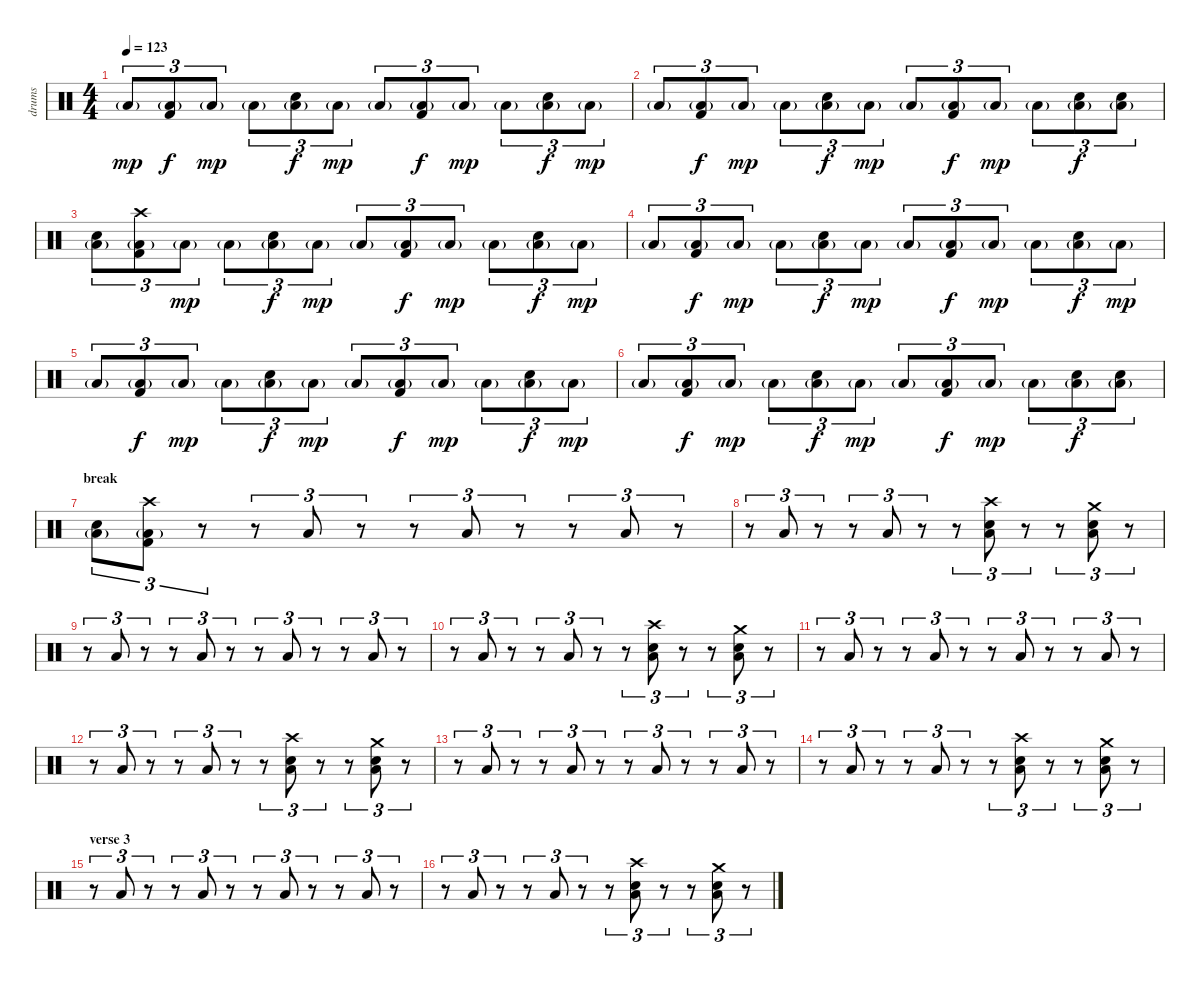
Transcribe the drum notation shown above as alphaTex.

\track ("drums" "drums") {instrument percussion}
\staff {score}
\articulation defaults
\ts (4 4)
\tempo 123
\clef neutral
\ks c "Low Floor Tom (hit)"{g}.8{tu (3 2) txt "" dy mp}
("Low Floor Tom (hit)"{g} "Kick (hit) 2").8{tu (3 2) txt "" dy f} "Low Floor Tom (hit)"{g}.8{tu (3 2) txt "" dy mp} "Low Floor Tom (hit)"{g}.8{tu (3 2) txt ""} ("Low Floor Tom (hit)"{g} "Electric Snare (hit)").8{tu (3 2) txt "" dy f} "Low Floor Tom (hit)"{g}.8{tu (3 2) txt "" dy mp} "Low Floor Tom (hit)"{g}.8{tu (3 2) txt ""} ("Low Floor Tom (hit)"{g} "Kick (hit) 2").8{tu (3 2) txt "" dy f} "Low Floor Tom (hit)"{g}.8{tu (3 2) txt "" dy mp} "Low Floor Tom (hit)"{g}.8{tu (3 2) txt ""} ("Low Floor Tom (hit)"{g} "Electric Snare (hit)").8{tu (3 2) txt "" dy f} "Low Floor Tom (hit)"{g}.8{tu (3 2) txt "" dy mp} |
"Low Floor Tom (hit)"{g}.8{tu (3 2) txt ""} ("Low Floor Tom (hit)"{g} "Kick (hit) 2").8{tu (3 2) txt "" dy f} "Low Floor Tom (hit)"{g}.8{tu (3 2) txt "" dy mp} "Low Floor Tom (hit)"{g}.8{tu (3 2) txt ""} ("Low Floor Tom (hit)"{g} "Electric Snare (hit)").8{tu (3 2) txt "" dy f} "Low Floor Tom (hit)"{g}.8{tu (3 2) txt "" dy mp} "Low Floor Tom (hit)"{g}.8{tu (3 2) txt ""} ("Low Floor Tom (hit)"{g} "Kick (hit) 2").8{tu (3 2) txt "" dy f} "Low Floor Tom (hit)"{g}.8{tu (3 2) txt "" dy mp} "Low Floor Tom (hit)"{g}.8{tu (3 2) txt ""} ("Low Floor Tom (hit)"{g} "Electric Snare (hit)").8{tu (3 2) txt "" dy f} ("Low Floor Tom (hit)"{g} "Electric Snare (hit)").8{tu (3 2) txt ""} |
("Low Floor Tom (hit)"{g} "Electric Snare (hit)").8{tu (3 2) txt ""} ("Low Floor Tom (hit)"{g} "Kick (hit) 2" "Crash high (hit)").8{tu (3 2) txt ""} "Low Floor Tom (hit)"{g}.8{tu (3 2) txt "" dy mp} "Low Floor Tom (hit)"{g}.8{tu (3 2) txt ""} ("Low Floor Tom (hit)"{g} "Electric Snare (hit)").8{tu (3 2) txt "" dy f} "Low Floor Tom (hit)"{g}.8{tu (3 2) txt "" dy mp} "Low Floor Tom (hit)"{g}.8{tu (3 2) txt ""} ("Low Floor Tom (hit)"{g} "Kick (hit) 2").8{tu (3 2) txt "" dy f} "Low Floor Tom (hit)"{g}.8{tu (3 2) txt "" dy mp} "Low Floor Tom (hit)"{g}.8{tu (3 2) txt ""} ("Low Floor Tom (hit)"{g} "Electric Snare (hit)").8{tu (3 2) txt "" dy f} "Low Floor Tom (hit)"{g}.8{tu (3 2) txt "" dy mp} |
"Low Floor Tom (hit)"{g}.8{tu (3 2) txt ""} ("Low Floor Tom (hit)"{g} "Kick (hit) 2").8{tu (3 2) txt "" dy f} "Low Floor Tom (hit)"{g}.8{tu (3 2) txt "" dy mp} "Low Floor Tom (hit)"{g}.8{tu (3 2) txt ""} ("Low Floor Tom (hit)"{g} "Electric Snare (hit)").8{tu (3 2) txt "" dy f} "Low Floor Tom (hit)"{g}.8{tu (3 2) txt "" dy mp} "Low Floor Tom (hit)"{g}.8{tu (3 2) txt ""} ("Low Floor Tom (hit)"{g} "Kick (hit) 2").8{tu (3 2) txt "" dy f} "Low Floor Tom (hit)"{g}.8{tu (3 2) txt "" dy mp} "Low Floor Tom (hit)"{g}.8{tu (3 2) txt ""} ("Low Floor Tom (hit)"{g} "Electric Snare (hit)").8{tu (3 2) txt "" dy f} "Low Floor Tom (hit)"{g}.8{tu (3 2) txt "" dy mp} |
"Low Floor Tom (hit)"{g}.8{tu (3 2) txt ""} ("Low Floor Tom (hit)"{g} "Kick (hit) 2").8{tu (3 2) txt "" dy f} "Low Floor Tom (hit)"{g}.8{tu (3 2) txt "" dy mp} "Low Floor Tom (hit)"{g}.8{tu (3 2) txt ""} ("Low Floor Tom (hit)"{g} "Electric Snare (hit)").8{tu (3 2) txt "" dy f} "Low Floor Tom (hit)"{g}.8{tu (3 2) txt "" dy mp} "Low Floor Tom (hit)"{g}.8{tu (3 2) txt ""} ("Low Floor Tom (hit)"{g} "Kick (hit) 2").8{tu (3 2) txt "" dy f} "Low Floor Tom (hit)"{g}.8{tu (3 2) txt "" dy mp} "Low Floor Tom (hit)"{g}.8{tu (3 2) txt ""} ("Low Floor Tom (hit)"{g} "Electric Snare (hit)").8{tu (3 2) txt "" dy f} "Low Floor Tom (hit)"{g}.8{tu (3 2) txt "" dy mp} |
"Low Floor Tom (hit)"{g}.8{tu (3 2) txt ""} ("Low Floor Tom (hit)"{g} "Kick (hit) 2").8{tu (3 2) txt "" dy f} "Low Floor Tom (hit)"{g}.8{tu (3 2) txt "" dy mp} "Low Floor Tom (hit)"{g}.8{tu (3 2) txt ""} ("Low Floor Tom (hit)"{g} "Electric Snare (hit)").8{tu (3 2) txt "" dy f} "Low Floor Tom (hit)"{g}.8{tu (3 2) txt "" dy mp} "Low Floor Tom (hit)"{g}.8{tu (3 2) txt ""} ("Low Floor Tom (hit)"{g} "Kick (hit) 2").8{tu (3 2) txt "" dy f} "Low Floor Tom (hit)"{g}.8{tu (3 2) txt "" dy mp} "Low Floor Tom (hit)"{g}.8{tu (3 2) txt ""} ("Low Floor Tom (hit)"{g} "Electric Snare (hit)").8{tu (3 2) txt "" dy f} ("Low Floor Tom (hit)"{g} "Electric Snare (hit)").8{tu (3 2) txt ""} |
\section ("" "break")
("Low Floor Tom (hit)"{g} "Electric Snare (hit)").8{tu (3 2) txt ""} ("Low Floor Tom (hit)"{g} "Kick (hit) 2" "Crash high (hit)").8{tu (3 2) txt ""} r.8{tu (3 2) txt ""} r.8{tu (3 2) txt ""} "Low Floor Tom (hit)".8{tu (3 2) txt ""} r.8{tu (3 2) txt ""} r.8{tu (3 2) txt ""} "Low Floor Tom (hit)".8{tu (3 2) txt ""} r.8{tu (3 2) txt ""} r.8{tu (3 2) txt ""} "Low Floor Tom (hit)".8{tu (3 2) txt ""} r.8{tu (3 2) txt ""} |
r.8{tu (3 2) txt ""} "Low Floor Tom (hit)".8{tu (3 2) txt ""} r.8{tu (3 2) txt ""} r.8{tu (3 2) txt ""} "Low Floor Tom (hit)".8{tu (3 2) txt ""} r.8{tu (3 2) txt ""} r.8{tu (3 2) txt ""} ("Low Floor Tom (hit)" "Electric Snare (hit)" "Crash high (hit)").8{tu (3 2) txt ""} r.8{tu (3 2) txt ""} r.8{tu (3 2) txt ""} ("Low Floor Tom (hit)" "Electric Snare (hit)" "Crash medium (hit)").8{tu (3 2) txt ""} r.8{tu (3 2) txt ""} |
r.8{tu (3 2) txt ""} "Low Floor Tom (hit)".8{tu (3 2) txt ""} r.8{tu (3 2) txt ""} r.8{tu (3 2) txt ""} "Low Floor Tom (hit)".8{tu (3 2) txt ""} r.8{tu (3 2) txt ""} r.8{tu (3 2) txt ""} "Low Floor Tom (hit)".8{tu (3 2) txt ""} r.8{tu (3 2) txt ""} r.8{tu (3 2) txt ""} "Low Floor Tom (hit)".8{tu (3 2) txt ""} r.8{tu (3 2) txt ""} |
r.8{tu (3 2) txt ""} "Low Floor Tom (hit)".8{tu (3 2) txt ""} r.8{tu (3 2) txt ""} r.8{tu (3 2) txt ""} "Low Floor Tom (hit)".8{tu (3 2) txt ""} r.8{tu (3 2) txt ""} r.8{tu (3 2) txt ""} ("Low Floor Tom (hit)" "Electric Snare (hit)" "Crash high (hit)").8{tu (3 2) txt ""} r.8{tu (3 2) txt ""} r.8{tu (3 2) txt ""} ("Low Floor Tom (hit)" "Electric Snare (hit)" "Crash medium (hit)").8{tu (3 2) txt ""} r.8{tu (3 2) txt ""} |
r.8{tu (3 2) txt ""} "Low Floor Tom (hit)".8{tu (3 2) txt ""} r.8{tu (3 2) txt ""} r.8{tu (3 2) txt ""} "Low Floor Tom (hit)".8{tu (3 2) txt ""} r.8{tu (3 2) txt ""} r.8{tu (3 2) txt ""} "Low Floor Tom (hit)".8{tu (3 2) txt ""} r.8{tu (3 2) txt ""} r.8{tu (3 2) txt ""} "Low Floor Tom (hit)".8{tu (3 2) txt ""} r.8{tu (3 2) txt ""} |
r.8{tu (3 2) txt ""} "Low Floor Tom (hit)".8{tu (3 2) txt ""} r.8{tu (3 2) txt ""} r.8{tu (3 2) txt ""} "Low Floor Tom (hit)".8{tu (3 2) txt ""} r.8{tu (3 2) txt ""} r.8{tu (3 2) txt ""} ("Low Floor Tom (hit)" "Electric Snare (hit)" "Crash high (hit)").8{tu (3 2) txt ""} r.8{tu (3 2) txt ""} r.8{tu (3 2) txt ""} ("Low Floor Tom (hit)" "Electric Snare (hit)" "Crash medium (hit)").8{tu (3 2) txt ""} r.8{tu (3 2) txt ""} |
r.8{tu (3 2) txt ""} "Low Floor Tom (hit)".8{tu (3 2) txt ""} r.8{tu (3 2) txt ""} r.8{tu (3 2) txt ""} "Low Floor Tom (hit)".8{tu (3 2) txt ""} r.8{tu (3 2) txt ""} r.8{tu (3 2) txt ""} "Low Floor Tom (hit)".8{tu (3 2) txt ""} r.8{tu (3 2) txt ""} r.8{tu (3 2) txt ""} "Low Floor Tom (hit)".8{tu (3 2) txt ""} r.8{tu (3 2) txt ""} |
r.8{tu (3 2) txt ""} "Low Floor Tom (hit)".8{tu (3 2) txt ""} r.8{tu (3 2) txt ""} r.8{tu (3 2) txt ""} "Low Floor Tom (hit)".8{tu (3 2) txt ""} r.8{tu (3 2) txt ""} r.8{tu (3 2) txt ""} ("Low Floor Tom (hit)" "Electric Snare (hit)" "Crash high (hit)").8{tu (3 2) txt ""} r.8{tu (3 2) txt ""} r.8{tu (3 2) txt ""} ("Low Floor Tom (hit)" "Electric Snare (hit)" "Crash medium (hit)").8{tu (3 2) txt ""} r.8{tu (3 2) txt ""} |
\section ("" "verse 3")
r.8{tu (3 2) txt ""} "Low Floor Tom (hit)".8{tu (3 2) txt ""} r.8{tu (3 2) txt ""} r.8{tu (3 2) txt ""} "Low Floor Tom (hit)".8{tu (3 2) txt ""} r.8{tu (3 2) txt ""} r.8{tu (3 2) txt ""} "Low Floor Tom (hit)".8{tu (3 2) txt ""} r.8{tu (3 2) txt ""} r.8{tu (3 2) txt ""} "Low Floor Tom (hit)".8{tu (3 2) txt ""} r.8{tu (3 2) txt ""} |
r.8{tu (3 2) txt ""} "Low Floor Tom (hit)".8{tu (3 2) txt ""} r.8{tu (3 2) txt ""} r.8{tu (3 2) txt ""} "Low Floor Tom (hit)".8{tu (3 2) txt ""} r.8{tu (3 2) txt ""} r.8{tu (3 2) txt ""} ("Low Floor Tom (hit)" "Electric Snare (hit)" "Crash high (hit)").8{tu (3 2) txt ""} r.8{tu (3 2) txt ""} r.8{tu (3 2) txt ""} ("Low Floor Tom (hit)" "Electric Snare (hit)" "Crash medium (hit)").8{tu (3 2) txt ""} r.8{tu (3 2) txt ""}
